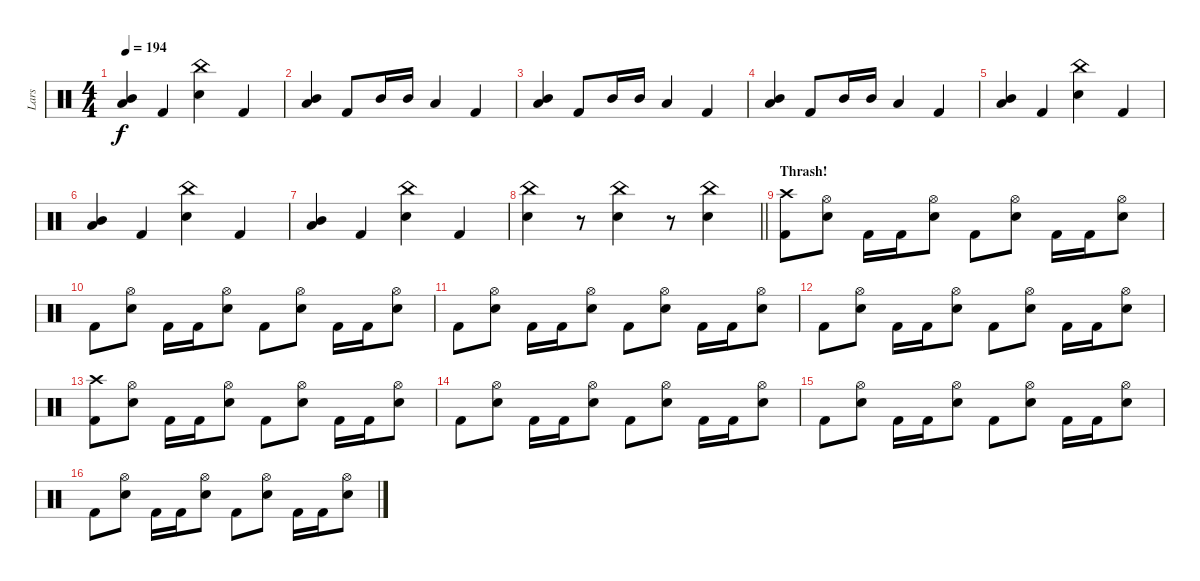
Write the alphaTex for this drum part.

\track ("Lars" "Lars") {instrument percussion}
\staff {score}
\articulation defaults
\ts (4 4)
\tempo 194
\clef neutral
\ks c
("Mid Tom (hit)" "Low Tom (hit)").4{bu 60 dy f} "Kick (hit) 2".4 ("Electric Snare (hit)" "China (hit)").4 "Kick (hit) 2".4 |
("Mid Tom (hit)" "Low Tom (hit)").4{bu 60} "Kick (hit) 2".8 "Mid Tom (hit)".16 "Mid Tom (hit)".16 "Low Tom (hit)".4 "Kick (hit) 2".4 |
("Mid Tom (hit)" "Low Tom (hit)").4{bu 60} "Kick (hit) 2".8 "Mid Tom (hit)".16 "Mid Tom (hit)".16 "Low Tom (hit)".4 "Kick (hit) 2".4 |
("Mid Tom (hit)" "Low Tom (hit)").4{bu 60} "Kick (hit) 2".8 "Mid Tom (hit)".16 "Mid Tom (hit)".16 "Low Tom (hit)".4 "Kick (hit) 2".4 |
("Mid Tom (hit)" "Low Tom (hit)").4{bu 60} "Kick (hit) 2".4 ("Electric Snare (hit)" "China (hit)").4 "Kick (hit) 2".4 |
("Mid Tom (hit)" "Low Tom (hit)").4{bu 60} "Kick (hit) 2".4 ("Electric Snare (hit)" "China (hit)").4 "Kick (hit) 2".4 |
("Mid Tom (hit)" "Low Tom (hit)").4{bu 60} "Kick (hit) 2".4 ("Electric Snare (hit)" "China (hit)").4 "Kick (hit) 2".4 |
\barLineRight lightlight
("Electric Snare (hit)" "China (hit)").4 r.8 ("Electric Snare (hit)" "China (hit)").4 r.8 ("Electric Snare (hit)" "China (hit)").4 |
\section ("" "Thrash!")
("Kick (hit) 2" "Crash high (hit)").8 ("Electric Snare (hit)" "Hi-Hat (open)").8 "Kick (hit) 2".16 "Kick (hit) 2".16 ("Electric Snare (hit)" "Hi-Hat (open)").8 "Kick (hit) 2".8 ("Electric Snare (hit)" "Hi-Hat (open)").8 "Kick (hit) 2".16 "Kick (hit) 2".16 ("Electric Snare (hit)" "Hi-Hat (open)").8 |
"Kick (hit) 2".8 ("Electric Snare (hit)" "Hi-Hat (open)").8 "Kick (hit) 2".16 "Kick (hit) 2".16 ("Electric Snare (hit)" "Hi-Hat (open)").8 "Kick (hit) 2".8 ("Electric Snare (hit)" "Hi-Hat (open)").8 "Kick (hit) 2".16 "Kick (hit) 2".16 ("Electric Snare (hit)" "Hi-Hat (open)").8 |
"Kick (hit) 2".8 ("Electric Snare (hit)" "Hi-Hat (open)").8 "Kick (hit) 2".16 "Kick (hit) 2".16 ("Electric Snare (hit)" "Hi-Hat (open)").8 "Kick (hit) 2".8 ("Electric Snare (hit)" "Hi-Hat (open)").8 "Kick (hit) 2".16 "Kick (hit) 2".16 ("Electric Snare (hit)" "Hi-Hat (open)").8 |
"Kick (hit) 2".8 ("Electric Snare (hit)" "Hi-Hat (open)").8 "Kick (hit) 2".16 "Kick (hit) 2".16 ("Electric Snare (hit)" "Hi-Hat (open)").8 "Kick (hit) 2".8 ("Electric Snare (hit)" "Hi-Hat (open)").8 "Kick (hit) 2".16 "Kick (hit) 2".16 ("Electric Snare (hit)" "Hi-Hat (open)").8 |
("Kick (hit) 2" "Crash high (hit)").8 ("Electric Snare (hit)" "Hi-Hat (open)").8 "Kick (hit) 2".16 "Kick (hit) 2".16 ("Electric Snare (hit)" "Hi-Hat (open)").8 "Kick (hit) 2".8 ("Electric Snare (hit)" "Hi-Hat (open)").8 "Kick (hit) 2".16 "Kick (hit) 2".16 ("Electric Snare (hit)" "Hi-Hat (open)").8 |
"Kick (hit) 2".8 ("Electric Snare (hit)" "Hi-Hat (open)").8 "Kick (hit) 2".16 "Kick (hit) 2".16 ("Electric Snare (hit)" "Hi-Hat (open)").8 "Kick (hit) 2".8 ("Electric Snare (hit)" "Hi-Hat (open)").8 "Kick (hit) 2".16 "Kick (hit) 2".16 ("Electric Snare (hit)" "Hi-Hat (open)").8 |
"Kick (hit) 2".8 ("Electric Snare (hit)" "Hi-Hat (open)").8 "Kick (hit) 2".16 "Kick (hit) 2".16 ("Electric Snare (hit)" "Hi-Hat (open)").8 "Kick (hit) 2".8 ("Electric Snare (hit)" "Hi-Hat (open)").8 "Kick (hit) 2".16 "Kick (hit) 2".16 ("Electric Snare (hit)" "Hi-Hat (open)").8 |
"Kick (hit) 2".8 ("Electric Snare (hit)" "Hi-Hat (open)").8 "Kick (hit) 2".16 "Kick (hit) 2".16 ("Electric Snare (hit)" "Hi-Hat (open)").8 "Kick (hit) 2".8 ("Electric Snare (hit)" "Hi-Hat (open)").8 "Kick (hit) 2".16 "Kick (hit) 2".16 ("Electric Snare (hit)" "Hi-Hat (open)").8
